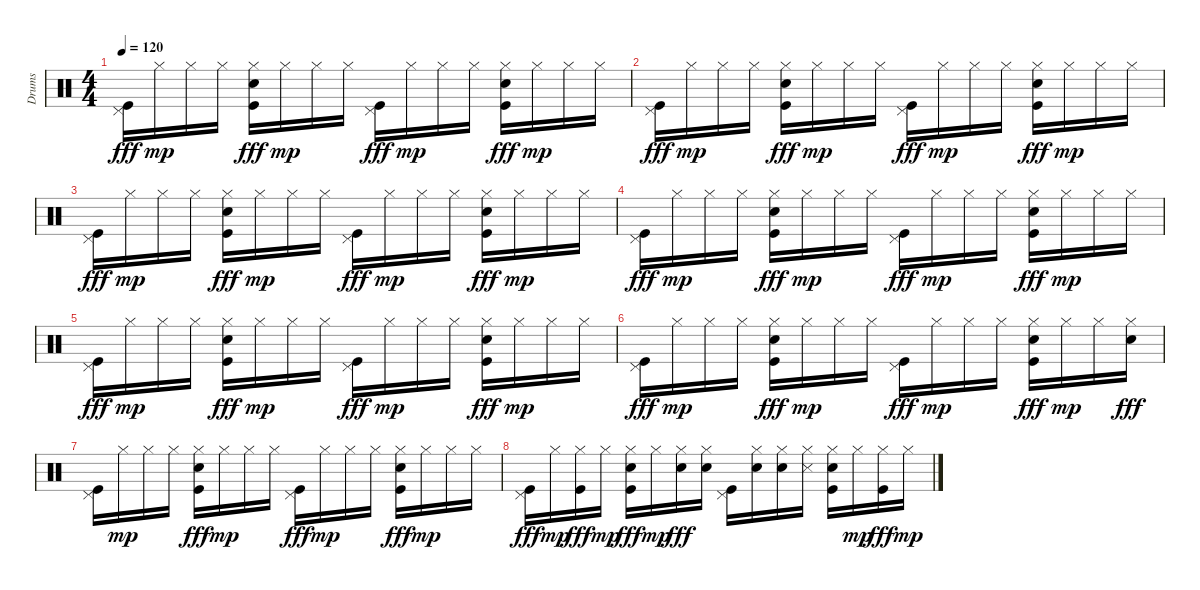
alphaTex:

\track ("Drums" "Drums") {instrument percussion}
\staff {score}
\articulation defaults
\ts (4 4)
\tempo 120
\clef neutral
\ks c
("Pedal Hi-Hat (hit)" "Kick (hit)").16{dy fff} "Hi-Hat (closed)".16{dy mp} "Hi-Hat (closed)".16 "Hi-Hat (closed)".16 ("Hi-Hat (closed)" "Snare (hit) 2" "Kick (hit)").16{dy fff} "Hi-Hat (closed)".16{dy mp} "Hi-Hat (closed)".16 "Hi-Hat (closed)".16 ("Pedal Hi-Hat (hit)" "Kick (hit)").16{dy fff} "Hi-Hat (closed)".16{dy mp} "Hi-Hat (closed)".16 "Hi-Hat (closed)".16 ("Hi-Hat (closed)" "Snare (hit) 2" "Kick (hit)").16{dy fff} "Hi-Hat (closed)".16{dy mp} "Hi-Hat (closed)".16 "Hi-Hat (closed)".16 |
("Pedal Hi-Hat (hit)" "Kick (hit)").16{dy fff} "Hi-Hat (closed)".16{dy mp} "Hi-Hat (closed)".16 "Hi-Hat (closed)".16 ("Hi-Hat (closed)" "Snare (hit) 2" "Kick (hit)").16{dy fff} "Hi-Hat (closed)".16{dy mp} "Hi-Hat (closed)".16 "Hi-Hat (closed)".16 ("Pedal Hi-Hat (hit)" "Kick (hit)").16{dy fff} "Hi-Hat (closed)".16{dy mp} "Hi-Hat (closed)".16 "Hi-Hat (closed)".16 ("Hi-Hat (closed)" "Snare (hit) 2" "Kick (hit)").16{dy fff} "Hi-Hat (closed)".16{dy mp} "Hi-Hat (closed)".16 "Hi-Hat (closed)".16 |
("Pedal Hi-Hat (hit)" "Kick (hit)").16{dy fff} "Hi-Hat (closed)".16{dy mp} "Hi-Hat (closed)".16 "Hi-Hat (closed)".16 ("Hi-Hat (closed)" "Snare (hit) 2" "Kick (hit)").16{dy fff} "Hi-Hat (closed)".16{dy mp} "Hi-Hat (closed)".16 "Hi-Hat (closed)".16 ("Pedal Hi-Hat (hit)" "Kick (hit)").16{dy fff} "Hi-Hat (closed)".16{dy mp} "Hi-Hat (closed)".16 "Hi-Hat (closed)".16 ("Hi-Hat (closed)" "Snare (hit) 2" "Kick (hit)").16{dy fff} "Hi-Hat (closed)".16{dy mp} "Hi-Hat (closed)".16 "Hi-Hat (closed)".16 |
("Pedal Hi-Hat (hit)" "Kick (hit)").16{dy fff} "Hi-Hat (closed)".16{dy mp} "Hi-Hat (closed)".16 "Hi-Hat (closed)".16 ("Hi-Hat (closed)" "Snare (hit) 2" "Kick (hit)").16{dy fff} "Hi-Hat (closed)".16{dy mp} "Hi-Hat (closed)".16 "Hi-Hat (closed)".16 ("Pedal Hi-Hat (hit)" "Kick (hit)").16{dy fff} "Hi-Hat (closed)".16{dy mp} "Hi-Hat (closed)".16 "Hi-Hat (closed)".16 ("Hi-Hat (closed)" "Snare (hit) 2" "Kick (hit)").16{dy fff} "Hi-Hat (closed)".16{dy mp} "Hi-Hat (closed)".16 "Hi-Hat (closed)".16 |
("Pedal Hi-Hat (hit)" "Kick (hit)").16{dy fff} "Hi-Hat (closed)".16{dy mp} "Hi-Hat (closed)".16 "Hi-Hat (closed)".16 ("Hi-Hat (closed)" "Snare (hit) 2" "Kick (hit)").16{dy fff} "Hi-Hat (closed)".16{dy mp} "Hi-Hat (closed)".16 "Hi-Hat (closed)".16 ("Pedal Hi-Hat (hit)" "Kick (hit)").16{dy fff} "Hi-Hat (closed)".16{dy mp} "Hi-Hat (closed)".16 "Hi-Hat (closed)".16 ("Hi-Hat (closed)" "Snare (hit) 2" "Kick (hit)").16{dy fff} "Hi-Hat (closed)".16{dy mp} "Hi-Hat (closed)".16 "Hi-Hat (closed)".16 |
("Pedal Hi-Hat (hit)" "Kick (hit)").16{dy fff} "Hi-Hat (closed)".16{dy mp} "Hi-Hat (closed)".16 "Hi-Hat (closed)".16 ("Hi-Hat (closed)" "Snare (hit) 2" "Kick (hit)").16{dy fff} "Hi-Hat (closed)".16{dy mp} "Hi-Hat (closed)".16 "Hi-Hat (closed)".16 ("Pedal Hi-Hat (hit)" "Kick (hit)").16{dy fff} "Hi-Hat (closed)".16{dy mp} "Hi-Hat (closed)".16 "Hi-Hat (closed)".16 ("Hi-Hat (closed)" "Snare (hit) 2" "Kick (hit)").16{dy fff} "Hi-Hat (closed)".16{dy mp} "Hi-Hat (closed)".16 ("Hi-Hat (closed)" "Snare (hit) 2").16{dy fff} |
("Pedal Hi-Hat (hit)" "Kick (hit)").16 "Hi-Hat (closed)".16{dy mp} "Hi-Hat (closed)".16 "Hi-Hat (closed)".16 ("Hi-Hat (closed)" "Snare (hit) 2" "Kick (hit)").16{dy fff} "Hi-Hat (closed)".16{dy mp} "Hi-Hat (closed)".16 "Hi-Hat (closed)".16 ("Pedal Hi-Hat (hit)" "Kick (hit)").16{dy fff} "Hi-Hat (closed)".16{dy mp} "Hi-Hat (closed)".16 "Hi-Hat (closed)".16 ("Hi-Hat (closed)" "Snare (hit) 2" "Kick (hit)").16{dy fff} "Hi-Hat (closed)".16{dy mp} "Hi-Hat (closed)".16 "Hi-Hat (closed)".16 |
("Pedal Hi-Hat (hit)" "Kick (hit)").16{dy fff} "Hi-Hat (closed)".16{dy mp} ("Hi-Hat (closed)" "Kick (hit)").16{dy fff} "Hi-Hat (closed)".16{dy mp} ("Hi-Hat (closed)" "Snare (hit) 2" "Kick (hit)").16{dy fff} "Hi-Hat (closed)".16{dy mp} ("Hi-Hat (closed)" "Snare (hit) 2").16{dy fff} ("Hi-Hat (closed)" "Snare (hit) 2").16 ("Pedal Hi-Hat (hit)" "Kick (hit)").16 ("Hi-Hat (closed)" "Snare (hit) 2").16 ("Hi-Hat (closed)" "Snare (hit) 2").16 ("Hi-Hat (closed)" "Snare (side stick) 3").16 ("Hi-Hat (closed)" "Snare (hit) 2" "Kick (hit)").16 "Hi-Hat (closed)".16{dy mp} ("Hi-Hat (closed)" "Kick (hit)").16{dy fff} "Hi-Hat (closed)".16{dy mp}
